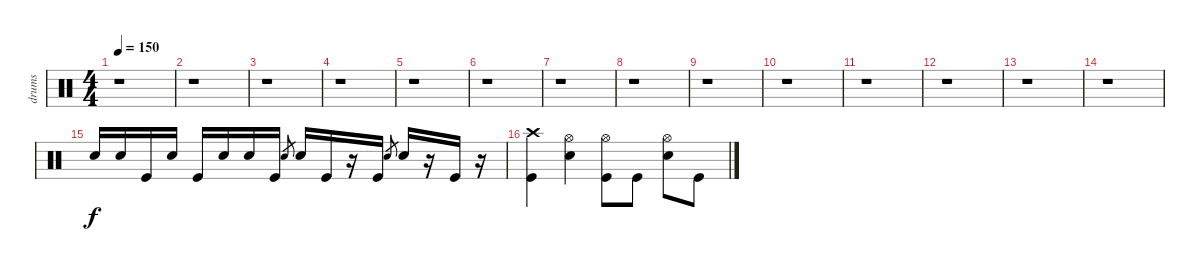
\track ("drums" "drums") {instrument percussion}
\staff {score}
\articulation defaults
\ts (4 4)
\tempo 150
\clef neutral
\ks c
r.1{dy f} |
r.1 |
r.1 |
r.1 |
r.1 |
r.1 |
r.1 |
r.1 |
r.1 |
r.1 |
r.1 |
r.1 |
r.1 |
r.1 |
"Snare (hit)"{x}.16 "Metronome (bell)"{x}.16 "Kick (hit)"{x}.16 "Snare (hit)"{x}.16 "Kick (hit)"{x}.16 "Metronome (bell)"{x}.16 "Snare (hit)"{x}.16 "Kick (hit)"{x}.16 "Electric Snare (hit)".8{gr} "Electric Snare (hit)".16 "Kick (hit)".16 r.16 "Kick (hit)".16 "Electric Snare (hit)".8{gr} "Electric Snare (hit)".16 r.16 "Kick (hit)".16 r.16 |
("Crash high (hit)" "Kick (hit)").4 ("Hi-Hat (open)" "Electric Snare (hit)").4 ("Hi-Hat (open)" "Kick (hit)").8 "Kick (hit)".8 ("Hi-Hat (open)" "Electric Snare (hit)").8 "Kick (hit)".8
